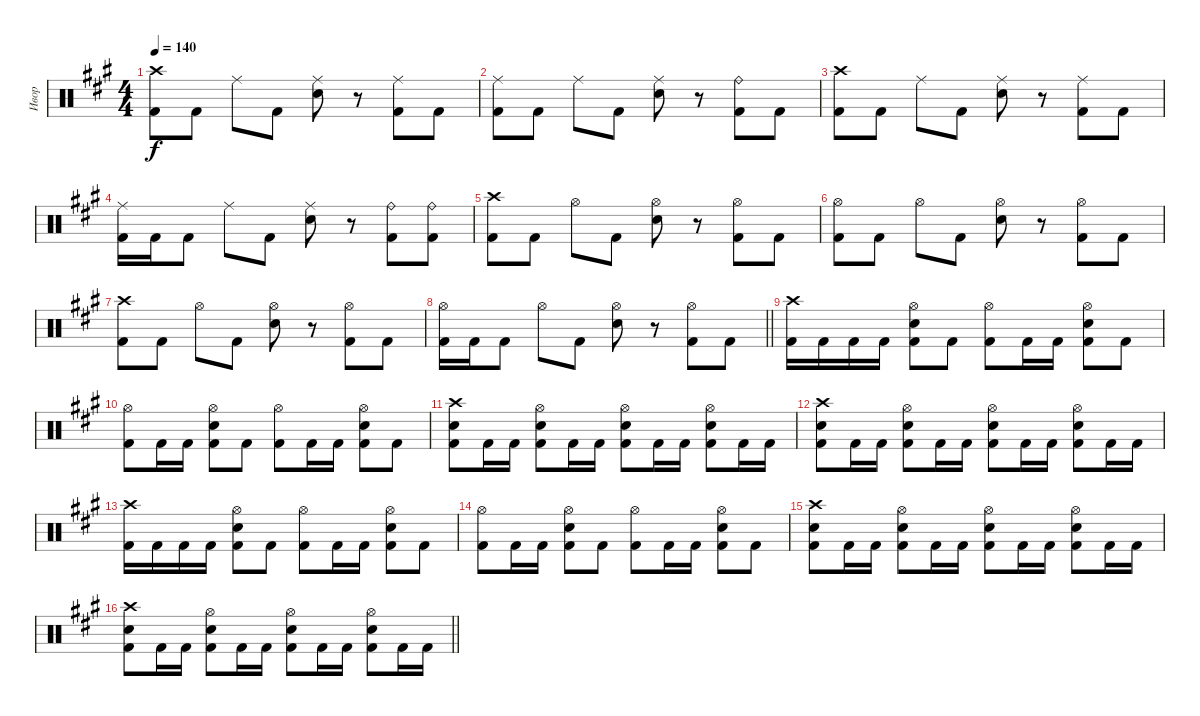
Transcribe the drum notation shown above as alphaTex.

\track ("Ивор" "Ивор") {instrument percussion}
\staff {score}
\articulation defaults
\ts (4 4)
\tempo 140
\clef neutral
\ks f#minor
("Crash high (hit)" "Kick (hit) 2").8{dy f} "Kick (hit) 2".8 "Ride (middle)".8 "Kick (hit) 2".8 ("Ride (middle)" "Electric Snare (hit)").8 r.8 ("Ride (middle)" "Kick (hit) 2").8 "Kick (hit) 2".8 |
("Ride (middle)" "Kick (hit) 2").8 "Kick (hit) 2".8 "Ride (middle)".8 "Kick (hit) 2".8 ("Ride (middle)" "Electric Snare (hit)").8 r.8 ("Ride (bell)" "Kick (hit) 2").8 "Kick (hit) 2".8 |
("Crash high (hit)" "Kick (hit) 2").8 "Kick (hit) 2".8 "Ride (middle)".8 "Kick (hit) 2".8 ("Ride (middle)" "Electric Snare (hit)").8 r.8 ("Ride (middle)" "Kick (hit) 2").8 "Kick (hit) 2".8 |
("Ride (middle)" "Kick (hit) 2").16 "Kick (hit) 2".16 "Kick (hit) 2".8 "Ride (middle)".8 "Kick (hit) 2".8 ("Ride (middle)" "Electric Snare (hit)").8 r.8 ("Ride (bell)" "Kick (hit) 2").8 ("Ride (bell)" "Kick (hit) 2").8 |
("Crash high (hit)" "Kick (hit) 2").8 "Kick (hit) 2".8 "Hi-Hat (open)".8 "Kick (hit) 2".8 ("Hi-Hat (open)" "Electric Snare (hit)").8 r.8 ("Hi-Hat (open)" "Kick (hit) 2").8 "Kick (hit) 2".8 |
("Hi-Hat (open)" "Kick (hit) 2").8 "Kick (hit) 2".8 "Hi-Hat (open)".8 "Kick (hit) 2".8 ("Hi-Hat (open)" "Electric Snare (hit)").8 r.8 ("Hi-Hat (open)" "Kick (hit) 2").8 "Kick (hit) 2".8 |
("Crash high (hit)" "Kick (hit) 2").8 "Kick (hit) 2".8 "Hi-Hat (open)".8 "Kick (hit) 2".8 ("Hi-Hat (open)" "Electric Snare (hit)").8 r.8 ("Hi-Hat (open)" "Kick (hit) 2").8 "Kick (hit) 2".8 |
\barLineRight lightlight
("Hi-Hat (open)" "Kick (hit) 2").16 "Kick (hit) 2".16 "Kick (hit) 2".8 "Hi-Hat (open)".8 "Kick (hit) 2".8 ("Hi-Hat (open)" "Electric Snare (hit)").8 r.8 ("Hi-Hat (open)" "Kick (hit) 2").8 "Kick (hit) 2".8 |
\section ("" "")
("Crash high (hit)" "Kick (hit) 2").16 "Kick (hit) 2".16 "Kick (hit) 2".16 "Kick (hit) 2".16 ("Hi-Hat (open)" "Electric Snare (hit)" "Kick (hit) 2").8 "Kick (hit) 2".8 ("Hi-Hat (open)" "Kick (hit) 2").8 "Kick (hit) 2".16 "Kick (hit) 2".16 ("Hi-Hat (open)" "Electric Snare (hit)" "Kick (hit) 2").8 "Kick (hit) 2".8 |
("Hi-Hat (open)" "Kick (hit) 2").8 "Kick (hit) 2".16 "Kick (hit) 2".16 ("Hi-Hat (open)" "Electric Snare (hit)" "Kick (hit) 2").8 "Kick (hit) 2".8 ("Hi-Hat (open)" "Kick (hit) 2").8 "Kick (hit) 2".16 "Kick (hit) 2".16 ("Hi-Hat (open)" "Electric Snare (hit)" "Kick (hit) 2").8 "Kick (hit) 2".8 |
("Crash high (hit)" "Electric Snare (hit)" "Kick (hit) 2").8 "Kick (hit) 2".16 "Kick (hit) 2".16 ("Hi-Hat (open)" "Electric Snare (hit)" "Kick (hit) 2").8 "Kick (hit) 2".16 "Kick (hit) 2".16 ("Hi-Hat (open)" "Electric Snare (hit)" "Kick (hit) 2").8 "Kick (hit) 2".16 "Kick (hit) 2".16 ("Hi-Hat (open)" "Electric Snare (hit)" "Kick (hit) 2").8 "Kick (hit) 2".16 "Kick (hit) 2".16 |
("Crash high (hit)" "Electric Snare (hit)" "Kick (hit) 2").8 "Kick (hit) 2".16 "Kick (hit) 2".16 ("Hi-Hat (open)" "Electric Snare (hit)" "Kick (hit) 2").8 "Kick (hit) 2".16 "Kick (hit) 2".16 ("Hi-Hat (open)" "Electric Snare (hit)" "Kick (hit) 2").8 "Kick (hit) 2".16 "Kick (hit) 2".16 ("Hi-Hat (open)" "Electric Snare (hit)" "Kick (hit) 2").8 "Kick (hit) 2".16 "Kick (hit) 2".16 |
("Crash high (hit)" "Kick (hit) 2").16 "Kick (hit) 2".16 "Kick (hit) 2".16 "Kick (hit) 2".16 ("Hi-Hat (open)" "Electric Snare (hit)" "Kick (hit) 2").8 "Kick (hit) 2".8 ("Hi-Hat (open)" "Kick (hit) 2").8 "Kick (hit) 2".16 "Kick (hit) 2".16 ("Hi-Hat (open)" "Electric Snare (hit)" "Kick (hit) 2").8 "Kick (hit) 2".8 |
("Hi-Hat (open)" "Kick (hit) 2").8 "Kick (hit) 2".16 "Kick (hit) 2".16 ("Hi-Hat (open)" "Electric Snare (hit)" "Kick (hit) 2").8 "Kick (hit) 2".8 ("Hi-Hat (open)" "Kick (hit) 2").8 "Kick (hit) 2".16 "Kick (hit) 2".16 ("Hi-Hat (open)" "Electric Snare (hit)" "Kick (hit) 2").8 "Kick (hit) 2".8 |
("Crash high (hit)" "Electric Snare (hit)" "Kick (hit) 2").8 "Kick (hit) 2".16 "Kick (hit) 2".16 ("Hi-Hat (open)" "Electric Snare (hit)" "Kick (hit) 2").8 "Kick (hit) 2".16 "Kick (hit) 2".16 ("Hi-Hat (open)" "Electric Snare (hit)" "Kick (hit) 2").8 "Kick (hit) 2".16 "Kick (hit) 2".16 ("Hi-Hat (open)" "Electric Snare (hit)" "Kick (hit) 2").8 "Kick (hit) 2".16 "Kick (hit) 2".16 |
\barLineRight lightlight
("Crash high (hit)" "Electric Snare (hit)" "Kick (hit) 2").8 "Kick (hit) 2".16 "Kick (hit) 2".16 ("Hi-Hat (open)" "Electric Snare (hit)" "Kick (hit) 2").8 "Kick (hit) 2".16 "Kick (hit) 2".16 ("Hi-Hat (open)" "Electric Snare (hit)" "Kick (hit) 2").8 "Kick (hit) 2".16 "Kick (hit) 2".16 ("Hi-Hat (open)" "Electric Snare (hit)" "Kick (hit) 2").8 "Kick (hit) 2".16 "Kick (hit) 2".16
